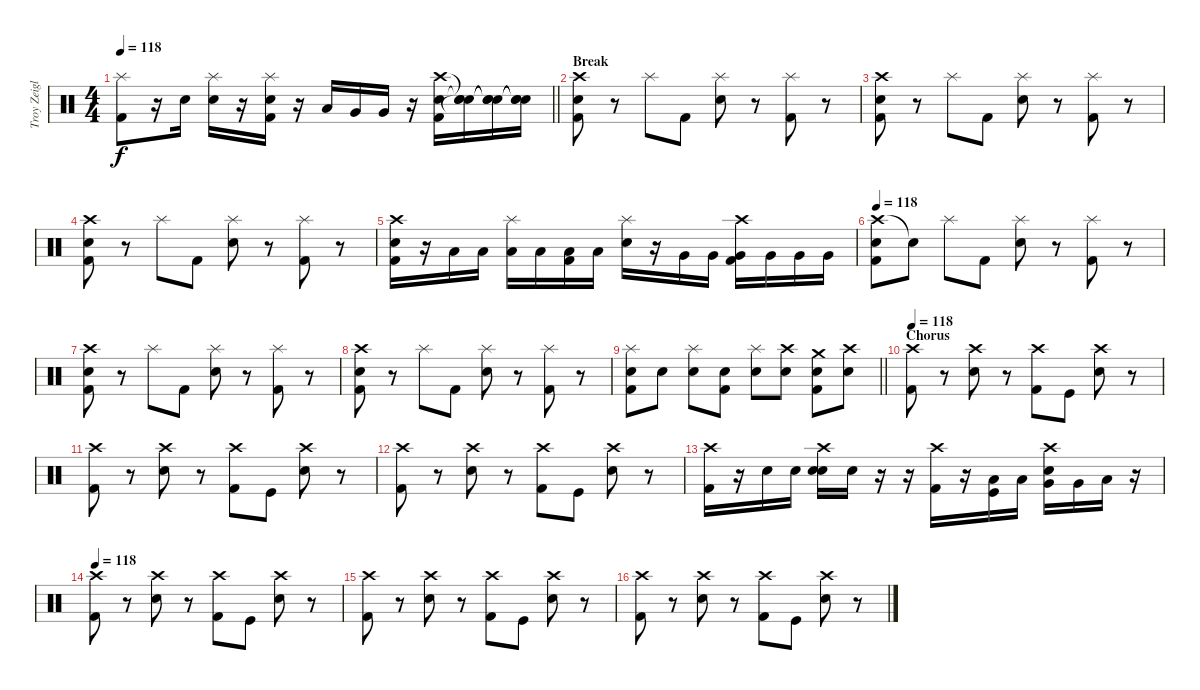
\track ("Troy Zeigler (Drums)" "Troy Zeigl") {instrument percussion}
\staff {score}
\articulation defaults
\ts (4 4)
\tempo 118
\clef neutral
\barLineRight lightlight
\ks c
("Splash (hit)" "Kick (hit) 2").8{dy f} r.16 "Snare (hit) 2".16 ("Splash (hit)" "Snare (hit) 2").16 r.16 ("Splash (hit)" "Kick (hit) 2" "Snare (hit) 2").16 r.16 "Low Tom (hit)".16 "Very Low Tom (hit)".16 "Very Low Tom (hit)".16 r.16 ("Kick (hit) 2" "Snare (hit) 2" "Crash high (hit)").16 ("Snare (hit)"{t} "Snare (hit)"{t} "Snare (hit)"{t}).16 ("Snare (hit)"{t} "Snare (hit)"{t} "Snare (hit)"{t}).16 ("Snare (hit)"{t} "Snare (hit)"{t} "Snare (hit)"{t}).16 |
\section ("" "Break")
("Crash high (hit)" "Kick (hit) 2" "Snare (hit) 2").8 r.8 "Splash (hit)".8 "Kick (hit) 2".8 ("Splash (hit)" "Snare (hit) 2").8 r.8 ("Splash (hit)" "Kick (hit) 2").8 r.8 |
("Crash high (hit)" "Kick (hit) 2" "Snare (hit) 2").8 r.8 "Splash (hit)".8 "Kick (hit) 2".8 ("Splash (hit)" "Snare (hit) 2").8 r.8 ("Splash (hit)" "Kick (hit) 2").8 r.8 |
("Crash high (hit)" "Kick (hit) 2" "Snare (hit) 2").8 r.8 "Splash (hit)".8 "Kick (hit) 2".8 ("Splash (hit)" "Snare (hit) 2").8 r.8 ("Splash (hit)" "Kick (hit) 2").8 r.8 |
("Crash high (hit)" "Kick (hit) 2" "Snare (hit) 2").16 r.16 "Low Floor Tom (hit)".16 "Low Floor Tom (hit)".16 ("Splash (hit)" "Low Floor Tom (hit)").16 "Low Floor Tom (hit)".16 ("Kick (hit) 2" "Low Floor Tom (hit)").16 "Low Floor Tom (hit)".16 ("Splash (hit)" "Snare (hit) 2").16 r.16 "Very Low Tom (hit)".16 "Very Low Tom (hit)".16 ("Crash high (hit)" "Kick (hit) 2" "Very Low Tom (hit)").16 "Very Low Tom (hit)".16 "Very Low Tom (hit)".16 "Very Low Tom (hit)".16 |
\tempo 118
("Crash high (hit)" "Kick (hit) 2" "Snare (hit) 2").8 "Snare (hit)"{t}.8 "Splash (hit)".8 "Kick (hit) 2".8 ("Splash (hit)" "Snare (hit) 2").8 r.8 ("Splash (hit)" "Kick (hit) 2").8 r.8 |
("Crash high (hit)" "Kick (hit) 2" "Snare (hit) 2").8 r.8 "Splash (hit)".8 "Kick (hit) 2".8 ("Splash (hit)" "Snare (hit) 2").8 r.8 ("Splash (hit)" "Kick (hit) 2").8 r.8 |
("Crash high (hit)" "Kick (hit) 2" "Snare (hit) 2").8 r.8 "Splash (hit)".8 "Kick (hit) 2".8 ("Splash (hit)" "Snare (hit) 2").8 r.8 ("Splash (hit)" "Kick (hit) 2").8 r.8 |
\barLineRight lightlight
("Splash (hit)" "Kick (hit) 2" "Snare (hit) 2").8 "Snare (hit) 2".8 ("Splash (hit)" "Snare (hit) 2").8 ("Kick (hit) 2" "Snare (hit) 2").8 ("Splash (hit)" "Snare (hit) 2").8 ("Crash high (hit)" "Snare (hit) 2").8 ("Crash medium (hit)" "Kick (hit) 2" "Snare (hit) 2").8 ("Crash high (hit)" "Snare (hit) 2").8 |
\section ("" "Chorus")
\tempo 118
("Crash high (hit)" "Kick (hit) 2").8 r.8 ("Crash high (hit)" "Snare (hit) 2").8 r.8 ("Crash high (hit)" "Kick (hit) 2").8 "Kick (hit)".8 ("Crash high (hit)" "Snare (hit) 2").8 r.8 |
("Crash high (hit)" "Kick (hit) 2").8 r.8 ("Crash high (hit)" "Snare (hit) 2").8 r.8 ("Crash high (hit)" "Kick (hit) 2").8 "Kick (hit)".8 ("Crash high (hit)" "Snare (hit) 2").8 r.8 |
("Crash high (hit)" "Kick (hit) 2").8 r.8 ("Crash high (hit)" "Snare (hit) 2").8 r.8 ("Crash high (hit)" "Kick (hit) 2").8 "Kick (hit)".8 ("Crash high (hit)" "Snare (hit) 2").8 r.8 |
("Crash high (hit)" "Kick (hit) 2").16 r.16 "Snare (hit) 2".16 "Snare (hit) 2".16 ("Crash high (hit)" "Snare (hit) 2" "Snare (hit) 2").16 "Snare (hit) 2".16 r.16 r.16 ("Crash high (hit)" "Kick (hit) 2").16 r.16 ("Kick (hit)" "Low Tom (hit)").16 "Low Tom (hit)".16 ("Crash high (hit)" "Snare (hit) 2" "Very Low Tom (hit)").16 "Very Low Tom (hit)".16 "Low Floor Tom (hit)".16 r.16 |
\tempo 118
("Crash high (hit)" "Kick (hit) 2").8 r.8 ("Crash high (hit)" "Snare (hit) 2").8 r.8 ("Crash high (hit)" "Kick (hit) 2").8 "Kick (hit)".8 ("Crash high (hit)" "Snare (hit) 2").8 r.8 |
("Crash high (hit)" "Kick (hit) 2").8 r.8 ("Crash high (hit)" "Snare (hit) 2").8 r.8 ("Crash high (hit)" "Kick (hit) 2").8 "Kick (hit)".8 ("Crash high (hit)" "Snare (hit) 2").8 r.8 |
("Crash high (hit)" "Kick (hit) 2").8 r.8 ("Crash high (hit)" "Snare (hit) 2").8 r.8 ("Crash high (hit)" "Kick (hit) 2").8 "Kick (hit)".8 ("Crash high (hit)" "Snare (hit) 2").8 r.8
